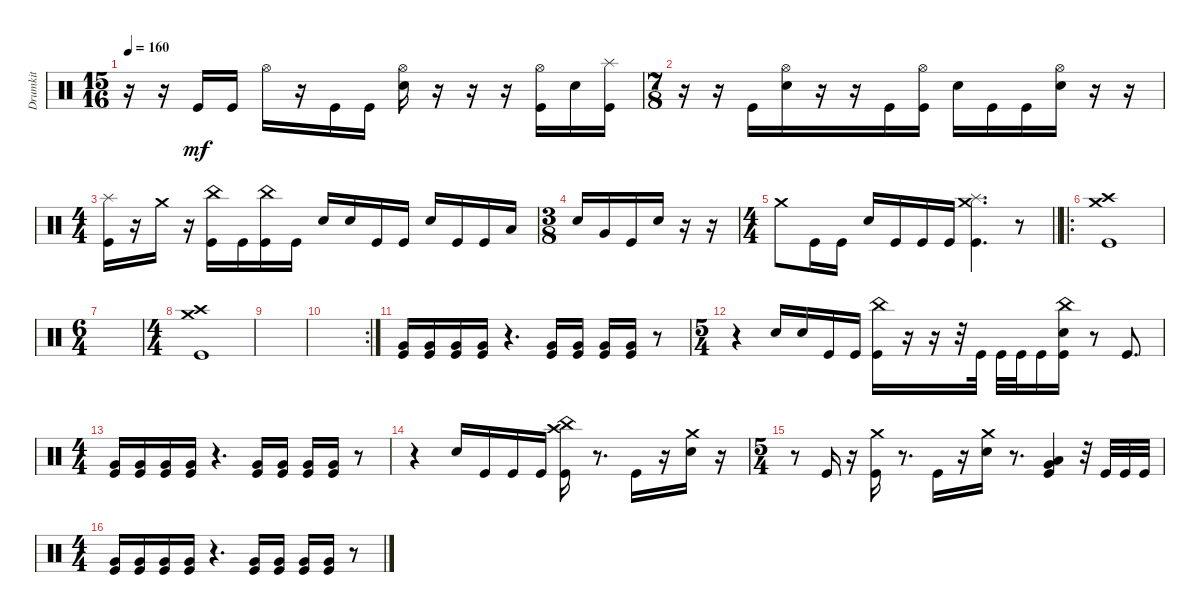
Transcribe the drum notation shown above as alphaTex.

\track ("Drumkit" "Drumkit") {instrument percussion}
\staff {score}
\articulation defaults
\ts (15 16)
\tempo 160
\clef neutral
\ks c
r.16{dy mf} r.16 "Kick (hit)".16 "Kick (hit)".16 "Hi-Hat (open)".16 r.16 "Kick (hit)".16 "Kick (hit)".16 ("Hi-Hat (open)" "Snare (hit) 2").16 r.16 r.16 r.16 ("Hi-Hat (open)" "Kick (hit)").16 "Snare (hit) 2".16 ("Splash (hit)" "Kick (hit)").16 |
\ts (7 8)
r.16 r.16 "Kick (hit)".16 ("Hi-Hat (open)" "Snare (hit) 2").16 r.16 r.16 "Kick (hit)".16 ("Hi-Hat (open)" "Kick (hit)").16 "Snare (hit) 2".16 "Kick (hit)".16 "Kick (hit)".16 ("Hi-Hat (open)" "Snare (hit) 2").16 r.16 r.16 |
\ts (4 4)
("Splash (hit)" "Kick (hit)").16 r.16 "Crash medium (hit)".16 r.16 ("Kick (hit)" "China (hit)").16 "Kick (hit)".16 ("Kick (hit)" "China (hit)").16 "Kick (hit)".16 "Snare (hit) 2".16 "Snare (hit) 2".16 "Kick (hit)".16 "Kick (hit)".16 "Snare (hit) 2".16 "Kick (hit)".16 "Kick (hit)".16 "Low Tom (hit)".16 |
\ts (3 8)
"Snare (hit) 2".16 "Very Low Tom (hit)".16 "Kick (hit)".16 "Snare (hit) 2".16 r.16 r.16 |
\ts (4 4)
\barLineRight lightlight "Crash medium (hit)".8 "Kick (hit)".16 "Kick (hit)".16 "Snare (hit) 2".16 "Kick (hit)".16 "Kick (hit)".16 "Kick (hit)".16
("Kick (hit)" "Crash medium (hit)" "Splash (hit)").4{d} r.8 |
\ro
("Crash medium (hit)" "Kick (hit)" "Crash high (hit)").1 |
\ts (6 4)
|
\ts (4 4)
("Crash medium (hit)" "Kick (hit)" "Crash high (hit)").1 |
|
\rc 2
|
("Very Low Tom (hit)" "Kick (hit)").16 ("Very Low Tom (hit)" "Kick (hit)").16 ("Very Low Tom (hit)" "Kick (hit)").16 ("Very Low Tom (hit)" "Kick (hit)").16 r.4{d} ("Kick (hit)" "Very Low Tom (hit)").16 ("Kick (hit)" "Very Low Tom (hit)").16 ("Kick (hit)" "Very Low Tom (hit)").16 ("Kick (hit)" "Very Low Tom (hit)").16 r.8 |
\ts (5 4)
r.4 "Snare (hit) 2".16 "Snare (hit) 2".16 "Kick (hit)".16 "Kick (hit)".16 ("Kick (hit)" "China (hit)").16 r.16 r.16 r.32 "Kick (hit)".32 "Kick (hit)".32 "Kick (hit)".32 "Kick (hit)".16 ("Kick (hit)" "Snare (hit) 2" "China (hit)").16 r.8 "Kick (hit)".8{d} |
\ts (4 4)
("Very Low Tom (hit)" "Kick (hit)").16 ("Very Low Tom (hit)" "Kick (hit)").16 ("Very Low Tom (hit)" "Kick (hit)").16 ("Very Low Tom (hit)" "Kick (hit)").16 r.4{d} ("Kick (hit)" "Very Low Tom (hit)").16 ("Kick (hit)" "Very Low Tom (hit)").16 ("Kick (hit)" "Very Low Tom (hit)").16 ("Kick (hit)" "Very Low Tom (hit)").16 r.8 |
r.4 "Snare (hit) 2".16 "Kick (hit)".16 "Kick (hit)".16 "Kick (hit)".16 ("Kick (hit)" "China (hit)" "Crash high (hit)").16 r.8{d} "Kick (hit)".16 r.16 ("Crash medium (hit)" "Snare (hit) 2").16 r.16 |
\ts (5 4)
r.8 "Kick (hit)".16 r.16 ("Kick (hit)" "Crash medium (hit)").16 r.8{d} "Kick (hit)".16 r.16 ("Snare (hit) 2" "Crash medium (hit)").16 r.8{d} ("Kick (hit)" "Very Low Tom (hit)" "Low Floor Tom (hit)").4 r.32 "Kick (hit)".32 "Kick (hit)".32 "Kick (hit)".32 |
\ts (4 4)
("Very Low Tom (hit)" "Kick (hit)").16 ("Very Low Tom (hit)" "Kick (hit)").16 ("Very Low Tom (hit)" "Kick (hit)").16 ("Very Low Tom (hit)" "Kick (hit)").16 r.4{d} ("Kick (hit)" "Very Low Tom (hit)").16 ("Kick (hit)" "Very Low Tom (hit)").16 ("Kick (hit)" "Very Low Tom (hit)").16 ("Kick (hit)" "Very Low Tom (hit)").16 r.8
